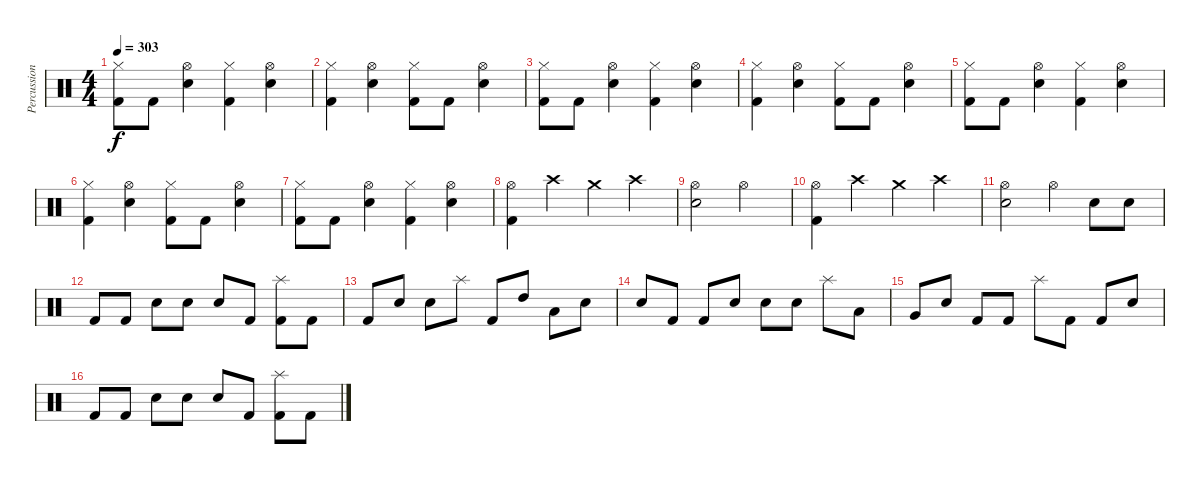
\track ("Percussions" "Percussion") {instrument percussion}
\staff {score}
\articulation defaults
\ts (4 4)
\tempo 303
\clef neutral
\ks c
("Hi-Hat (closed)" "Kick (hit) 2").8{dy f} "Kick (hit) 2".8 ("Hi-Hat (open)" "Electric Snare (hit)").4 ("Hi-Hat (closed)" "Kick (hit) 2").4 ("Hi-Hat (open)" "Electric Snare (hit)").4 |
("Hi-Hat (closed)" "Kick (hit) 2").4 ("Hi-Hat (open)" "Electric Snare (hit)").4 ("Hi-Hat (closed)" "Kick (hit) 2").8 "Kick (hit) 2".8 ("Hi-Hat (open)" "Electric Snare (hit)").4 |
("Hi-Hat (closed)" "Kick (hit) 2").8 "Kick (hit) 2".8 ("Hi-Hat (open)" "Electric Snare (hit)").4 ("Hi-Hat (closed)" "Kick (hit) 2").4 ("Hi-Hat (open)" "Electric Snare (hit)").4 |
("Hi-Hat (closed)" "Kick (hit) 2").4 ("Hi-Hat (open)" "Electric Snare (hit)").4 ("Hi-Hat (closed)" "Kick (hit) 2").8 "Kick (hit) 2".8 ("Hi-Hat (open)" "Electric Snare (hit)").4 |
("Hi-Hat (closed)" "Kick (hit) 2").8 "Kick (hit) 2".8 ("Hi-Hat (open)" "Electric Snare (hit)").4 ("Hi-Hat (closed)" "Kick (hit) 2").4 ("Hi-Hat (open)" "Electric Snare (hit)").4 |
("Hi-Hat (closed)" "Kick (hit) 2").4 ("Hi-Hat (open)" "Electric Snare (hit)").4 ("Hi-Hat (closed)" "Kick (hit) 2").8 "Kick (hit) 2".8 ("Hi-Hat (open)" "Electric Snare (hit)").4 |
("Hi-Hat (closed)" "Kick (hit) 2").8 "Kick (hit) 2".8 ("Hi-Hat (open)" "Electric Snare (hit)").4 ("Hi-Hat (closed)" "Kick (hit) 2").4 ("Hi-Hat (open)" "Electric Snare (hit)").4 |
("Hi-Hat (open)" "Kick (hit) 2").4 "Crash high (hit)".4 "Crash medium (hit)".4 "Crash high (hit)".4 |
("Hi-Hat (open)" "Electric Snare (hit)").2 "Hi-Hat (open)".2 |
("Hi-Hat (open)" "Kick (hit) 2").4 "Crash high (hit)".4 "Crash medium (hit)".4 "Crash high (hit)".4 |
("Hi-Hat (open)" "Electric Snare (hit)").2 "Hi-Hat (open)".4 "Electric Snare (hit)".8 "Electric Snare (hit)".8 |
"Kick (hit) 2".8 "Kick (hit) 2".8 "Electric Snare (hit)".8 "Electric Snare (hit)".8 "Electric Snare (hit)".8 "Kick (hit) 2".8 ("Splash (hit)" "Kick (hit) 2").8 "Kick (hit) 2".8 |
"Kick (hit) 2".8 "Electric Snare (hit)".8 "Electric Snare (hit)".8 "Splash (hit)".8 "Kick (hit) 2".8 "High Tom (hit)".8 "Low Tom (hit)".8 "Electric Snare (hit)".8 |
"Electric Snare (hit)".8 "Kick (hit) 2".8 "Kick (hit) 2".8 "Electric Snare (hit)".8 "Electric Snare (hit)".8 "Electric Snare (hit)".8 "Splash (hit)".8 "Low Tom (hit)".8 |
"Very Low Tom (hit)".8 "Electric Snare (hit)".8 "Kick (hit) 2".8 "Kick (hit) 2".8 "Splash (hit)".8 "Kick (hit) 2".8 "Kick (hit) 2".8 "Electric Snare (hit)".8 |
"Kick (hit) 2".8 "Kick (hit) 2".8 "Electric Snare (hit)".8 "Electric Snare (hit)".8 "Electric Snare (hit)".8 "Kick (hit) 2".8 ("Splash (hit)" "Kick (hit) 2").8 "Kick (hit) 2".8
